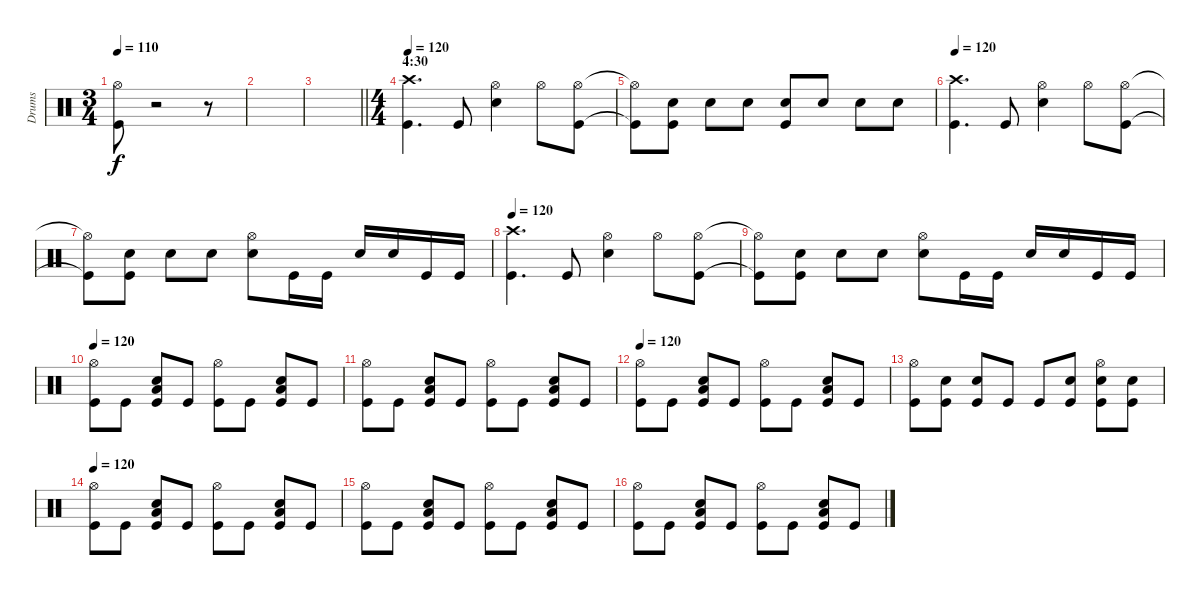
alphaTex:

\track ("Drums" "Drums") {instrument percussion}
\staff {score}
\articulation defaults
\ts (3 4)
\tempo 110
\clef neutral
\ks c
("Hi-Hat (open)" "Kick (hit)").8{dy f} r.2 r.8 |
|
\barLineRight lightlight
|
\ts (4 4)
\section ("" "4:30")
\tempo 120
("Crash high (hit)" "Kick (hit)").4{d} "Kick (hit)".8 ("Hi-Hat (open)" "Electric Snare (hit)").4 "Hi-Hat (open)".8 ("Hi-Hat (open)" "Kick (hit)").8 |
("Hi-Hat (open)"{t} "Kick (hit)"{t}).8 ("Electric Snare (hit)" "Kick (hit)").8 "Electric Snare (hit)".8 "Electric Snare (hit)".8 ("Electric Snare (hit)" "Kick (hit)").8 "Electric Snare (hit)".8 "Electric Snare (hit)".8 "Electric Snare (hit)".8 |
\tempo 120
("Crash high (hit)" "Kick (hit)").4{d} "Kick (hit)".8 ("Hi-Hat (open)" "Electric Snare (hit)").4 "Hi-Hat (open)".8 ("Hi-Hat (open)" "Kick (hit)").8 |
("Hi-Hat (open)"{t} "Kick (hit)"{t}).8 ("Electric Snare (hit)" "Kick (hit)").8 "Electric Snare (hit)".8 "Electric Snare (hit)".8 ("Hi-Hat (open)" "Electric Snare (hit)").8 "Kick (hit)".16 "Kick (hit)".16 "Electric Snare (hit)".16 "Electric Snare (hit)".16 "Kick (hit)".16 "Kick (hit)".16 |
\tempo 120
("Crash high (hit)" "Kick (hit)").4{d} "Kick (hit)".8 ("Hi-Hat (open)" "Electric Snare (hit)").4 "Hi-Hat (open)".8 ("Hi-Hat (open)" "Kick (hit)").8 |
("Hi-Hat (open)"{t} "Kick (hit)"{t}).8 ("Electric Snare (hit)" "Kick (hit)").8 "Electric Snare (hit)".8 "Electric Snare (hit)".8 ("Hi-Hat (open)" "Electric Snare (hit)").8 "Kick (hit)".16 "Kick (hit)".16 "Electric Snare (hit)".16 "Electric Snare (hit)".16 "Kick (hit)".16 "Kick (hit)".16 |
\tempo 120
("Hi-Hat (open)" "Kick (hit)").8 "Kick (hit)".8 ("Low Floor Tom (hit)" "Electric Snare (hit)" "Kick (hit)").8 "Kick (hit)".8 ("Hi-Hat (open)" "Kick (hit)").8 "Kick (hit)".8 ("Low Floor Tom (hit)" "Electric Snare (hit)" "Kick (hit)").8 "Kick (hit)".8 |
("Hi-Hat (open)" "Kick (hit)").8 "Kick (hit)".8 ("Low Floor Tom (hit)" "Electric Snare (hit)" "Kick (hit)").8 "Kick (hit)".8 ("Hi-Hat (open)" "Kick (hit)").8 "Kick (hit)".8 ("Low Floor Tom (hit)" "Electric Snare (hit)" "Kick (hit)").8 "Kick (hit)".8 |
\tempo 120
("Hi-Hat (open)" "Kick (hit)").8 "Kick (hit)".8 ("Low Floor Tom (hit)" "Electric Snare (hit)" "Kick (hit)").8 "Kick (hit)".8 ("Hi-Hat (open)" "Kick (hit)").8 "Kick (hit)".8 ("Low Floor Tom (hit)" "Electric Snare (hit)" "Kick (hit)").8 "Kick (hit)".8 |
("Hi-Hat (open)" "Kick (hit)").8 ("Electric Snare (hit)" "Kick (hit)").8 ("Electric Snare (hit)" "Kick (hit)").8 "Kick (hit)".8 "Kick (hit)".8 ("Electric Snare (hit)" "Kick (hit)").8 ("Hi-Hat (open)" "Electric Snare (hit)" "Kick (hit)").8 ("Electric Snare (hit)" "Kick (hit)").8 |
\tempo 120
("Hi-Hat (open)" "Kick (hit)").8 "Kick (hit)".8 ("Low Floor Tom (hit)" "Electric Snare (hit)" "Kick (hit)").8 "Kick (hit)".8 ("Hi-Hat (open)" "Kick (hit)").8 "Kick (hit)".8 ("Low Floor Tom (hit)" "Electric Snare (hit)" "Kick (hit)").8 "Kick (hit)".8 |
("Hi-Hat (open)" "Kick (hit)").8 "Kick (hit)".8 ("Low Floor Tom (hit)" "Electric Snare (hit)" "Kick (hit)").8 "Kick (hit)".8 ("Hi-Hat (open)" "Kick (hit)").8 "Kick (hit)".8 ("Low Floor Tom (hit)" "Electric Snare (hit)" "Kick (hit)").8 "Kick (hit)".8 |
("Hi-Hat (open)" "Kick (hit)").8 "Kick (hit)".8 ("Low Floor Tom (hit)" "Electric Snare (hit)" "Kick (hit)").8 "Kick (hit)".8 ("Hi-Hat (open)" "Kick (hit)").8 "Kick (hit)".8 ("Low Floor Tom (hit)" "Electric Snare (hit)" "Kick (hit)").8 "Kick (hit)".8
